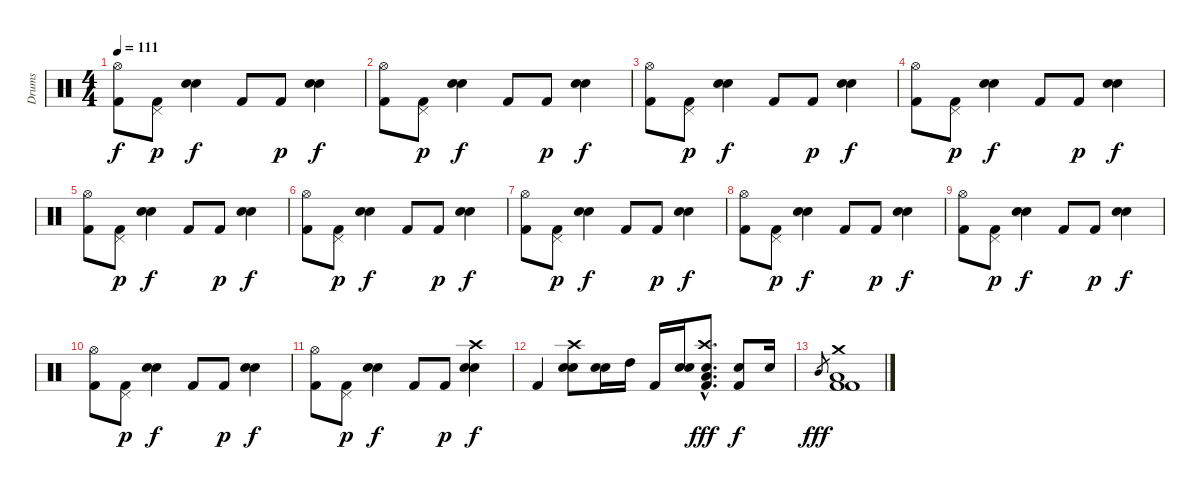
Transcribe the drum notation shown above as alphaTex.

\track ("Drums" "Drums") {instrument percussion}
\staff {score}
\articulation defaults
\ts (4 4)
\tempo 111
\clef neutral
\ks c
("Hi-Hat (open)" "Kick (hit) 2").8{dy f} ("Kick (hit) 2" "Pedal Hi-Hat (hit)").8{dy p} ("Snare (hit) 2" "Snare (hit) 2").4{dy f} "Kick (hit) 2".8 "Kick (hit) 2".8{dy p} ("Snare (hit) 2" "Snare (hit) 2").4{dy f} |
("Hi-Hat (open)" "Kick (hit) 2").8 ("Kick (hit) 2" "Pedal Hi-Hat (hit)").8{dy p} ("Snare (hit) 2" "Snare (hit) 2").4{dy f} "Kick (hit) 2".8 "Kick (hit) 2".8{dy p} ("Snare (hit) 2" "Snare (hit) 2").4{dy f} |
("Hi-Hat (open)" "Kick (hit) 2").8 ("Kick (hit) 2" "Pedal Hi-Hat (hit)").8{dy p} ("Snare (hit) 2" "Snare (hit) 2").4{dy f} "Kick (hit) 2".8 "Kick (hit) 2".8{dy p} ("Snare (hit) 2" "Snare (hit) 2").4{dy f} |
("Hi-Hat (open)" "Kick (hit) 2").8 ("Kick (hit) 2" "Pedal Hi-Hat (hit)").8{dy p} ("Snare (hit) 2" "Snare (hit) 2").4{dy f} "Kick (hit) 2".8 "Kick (hit) 2".8{dy p} ("Snare (hit) 2" "Snare (hit) 2").4{dy f} |
("Hi-Hat (open)" "Kick (hit) 2").8 ("Kick (hit) 2" "Pedal Hi-Hat (hit)").8{dy p} ("Snare (hit) 2" "Snare (hit) 2").4{dy f} "Kick (hit) 2".8 "Kick (hit) 2".8{dy p} ("Snare (hit) 2" "Snare (hit) 2").4{dy f} |
("Hi-Hat (open)" "Kick (hit) 2").8 ("Kick (hit) 2" "Pedal Hi-Hat (hit)").8{dy p} ("Snare (hit) 2" "Snare (hit) 2").4{dy f} "Kick (hit) 2".8 "Kick (hit) 2".8{dy p} ("Snare (hit) 2" "Snare (hit) 2").4{dy f} |
("Hi-Hat (open)" "Kick (hit) 2").8 ("Kick (hit) 2" "Pedal Hi-Hat (hit)").8{dy p} ("Snare (hit) 2" "Snare (hit) 2").4{dy f} "Kick (hit) 2".8 "Kick (hit) 2".8{dy p} ("Snare (hit) 2" "Snare (hit) 2").4{dy f} |
("Hi-Hat (open)" "Kick (hit) 2").8 ("Kick (hit) 2" "Pedal Hi-Hat (hit)").8{dy p} ("Snare (hit) 2" "Snare (hit) 2").4{dy f} "Kick (hit) 2".8 "Kick (hit) 2".8{dy p} ("Snare (hit) 2" "Snare (hit) 2").4{dy f} |
("Hi-Hat (open)" "Kick (hit) 2").8 ("Kick (hit) 2" "Pedal Hi-Hat (hit)").8{dy p} ("Snare (hit) 2" "Snare (hit) 2").4{dy f} "Kick (hit) 2".8 "Kick (hit) 2".8{dy p} ("Snare (hit) 2" "Snare (hit) 2").4{dy f} |
("Hi-Hat (open)" "Kick (hit) 2").8 ("Kick (hit) 2" "Pedal Hi-Hat (hit)").8{dy p} ("Snare (hit) 2" "Snare (hit) 2").4{dy f} "Kick (hit) 2".8 "Kick (hit) 2".8{dy p} ("Snare (hit) 2" "Snare (hit) 2").4{dy f} |
("Hi-Hat (open)" "Kick (hit) 2").8 ("Kick (hit) 2" "Pedal Hi-Hat (hit)").8{dy p} ("Snare (hit) 2" "Snare (hit) 2").4{dy f} "Kick (hit) 2".8 "Kick (hit) 2".8{dy p} ("Crash high (hit)" "Snare (hit) 2" "Snare (hit) 2").4{dy f} |
"Kick (hit) 2".4 ("Crash high (hit)" "Snare (hit) 2" "Snare (hit) 2").8 ("Snare (hit) 2" "Snare (hit) 2").16 "High Tom (hit)".16 "Kick (hit) 2".16 ("Snare (hit) 2" "Snare (hit) 2").16 ("Crash high (hit)"{hac} "Snare (hit) 2"{hac} "Kick (hit) 2"{hac} "Low Floor Tom (hit)"{hac}).8{d dy fff} ("Snare (hit) 2" "Kick (hit) 2").8{dy f} "Snare (hit) 2".16 |
"Mid Tom (hit)".8{gr dy fff} ("Crash medium (hit)" "Kick (hit) 2" "Kick (hit) 2" "Low Tom (hit)").1
